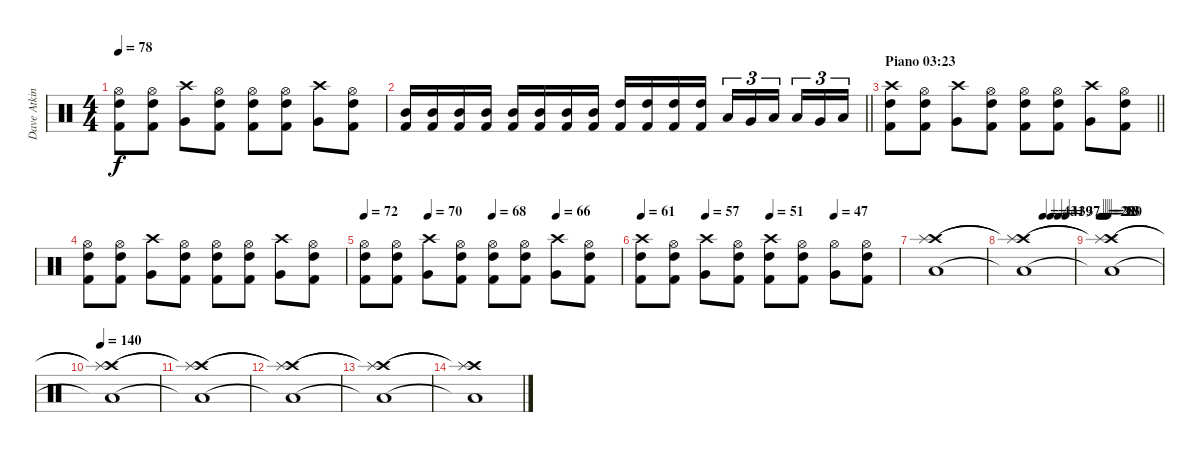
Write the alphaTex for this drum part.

\track ("Dave Atkins" "Dave Atkin") {instrument percussion}
\staff {score}
\articulation defaults
\ts (4 4)
\tempo 78
\clef neutral
\ks c
("Hi-Hat (open)" "High Tom (hit)" "Kick (hit) 2").8{dy f} ("Hi-Hat (open)" "High Tom (hit)" "Kick (hit) 2").8 ("Crash high (hit)" "Very Low Tom (hit)").8 ("Hi-Hat (open)" "High Tom (hit)" "Kick (hit) 2").8 ("Hi-Hat (open)" "High Tom (hit)" "Kick (hit) 2").8 ("Hi-Hat (open)" "High Tom (hit)" "Kick (hit) 2").8 ("Crash high (hit)" "Very Low Tom (hit)").8 ("Hi-Hat (open)" "High Tom (hit)" "Kick (hit) 2").8 |
\barLineRight lightlight
("Mid Tom (hit)" "Kick (hit) 2").16 ("Mid Tom (hit)" "Kick (hit) 2").16 ("Mid Tom (hit)" "Kick (hit) 2").16 ("Mid Tom (hit)" "Kick (hit) 2").16 ("Mid Tom (hit)" "Kick (hit) 2").16 ("Mid Tom (hit)" "Kick (hit) 2").16 ("Mid Tom (hit)" "Kick (hit) 2").16 ("Mid Tom (hit)" "Kick (hit) 2").16 ("High Tom (hit)" "Kick (hit) 2").16 ("High Tom (hit)" "Kick (hit) 2").16 ("High Tom (hit)" "Kick (hit) 2").16 ("High Tom (hit)" "Kick (hit) 2").16 "Low Floor Tom (hit)".16{tu (3 2)} "Very Low Tom (hit)".16{tu (3 2)} "Low Floor Tom (hit)".16{tu (3 2) beam splitsecondary} "Low Floor Tom (hit)".16{tu (3 2)} "Very Low Tom (hit)".16{tu (3 2)} "Low Floor Tom (hit)".16{tu (3 2)} |
\section ("" "Piano 03:23")
\barLineRight lightlight
("Crash high (hit)" "High Tom (hit)" "Kick (hit) 2").8 ("Hi-Hat (open)" "High Tom (hit)" "Kick (hit) 2").8 ("Crash high (hit)" "Very Low Tom (hit)").8 ("Hi-Hat (open)" "High Tom (hit)" "Kick (hit) 2").8 ("Hi-Hat (open)" "High Tom (hit)" "Kick (hit) 2").8 ("Hi-Hat (open)" "High Tom (hit)" "Kick (hit) 2").8 ("Crash high (hit)" "Very Low Tom (hit)").8 ("Hi-Hat (open)" "High Tom (hit)" "Kick (hit) 2").8 |
\section ("" "")
("Hi-Hat (open)" "High Tom (hit)" "Kick (hit) 2").8 ("Hi-Hat (open)" "High Tom (hit)" "Kick (hit) 2").8 ("Crash high (hit)" "Very Low Tom (hit)").8 ("Hi-Hat (open)" "High Tom (hit)" "Kick (hit) 2").8 ("Hi-Hat (open)" "High Tom (hit)" "Kick (hit) 2").8 ("Hi-Hat (open)" "High Tom (hit)" "Kick (hit) 2").8 ("Crash high (hit)" "Very Low Tom (hit)").8 ("Hi-Hat (open)" "High Tom (hit)" "Kick (hit) 2").8 |
\tempo 72
\tempo (70 0.25)
\tempo (68 0.5)
\tempo (66 0.75)
("Hi-Hat (open)" "High Tom (hit)" "Kick (hit) 2").8 ("Hi-Hat (open)" "High Tom (hit)" "Kick (hit) 2").8 ("Crash high (hit)" "Very Low Tom (hit)").8 ("Hi-Hat (open)" "High Tom (hit)" "Kick (hit) 2").8 ("Hi-Hat (open)" "High Tom (hit)" "Kick (hit) 2").8 ("Hi-Hat (open)" "High Tom (hit)" "Kick (hit) 2").8 ("Crash high (hit)" "Very Low Tom (hit)").8 ("Hi-Hat (open)" "High Tom (hit)" "Kick (hit) 2").8 |
\tempo 61
\tempo (57 0.25)
\tempo (51 0.5)
\tempo (47 0.75)
("Crash high (hit)" "High Tom (hit)" "Kick (hit) 2").8 ("Hi-Hat (open)" "High Tom (hit)" "Kick (hit) 2").8 ("Crash high (hit)" "Very Low Tom (hit)").8 ("Hi-Hat (open)" "High Tom (hit)" "Kick (hit) 2").8 ("Crash high (hit)" "High Tom (hit)" "Kick (hit) 2").8 ("Hi-Hat (open)" "High Tom (hit)" "Kick (hit) 2").8 ("Hi-Hat (open)" "Very Low Tom (hit)").8 ("Hi-Hat (open)" "High Tom (hit)" "Kick (hit) 2").8 |
("Crash high (hit)" "Splash (hit)" "Low Floor Tom (hit)").1 |
\tempo (43 0.5)
\tempo (41 0.625)
\tempo (39 0.75)
\tempo (37 0.875)
("Crash high (hit)"{t} "Splash (hit)"{t} "Low Floor Tom (hit)"{t}).1 |
\tempo 28
\tempo (22 0.03125)
\tempo (18 0.0625)
\tempo (13 0.09375)
\tempo (80 0.125)
("Crash high (hit)"{t} "Splash (hit)"{t} "Low Floor Tom (hit)"{t}).1 |
\tempo 140
("Crash high (hit)"{t} "Splash (hit)"{t} "Low Floor Tom (hit)"{t}).1 |
("Crash high (hit)"{t} "Splash (hit)"{t} "Low Floor Tom (hit)"{t}).1 |
("Crash high (hit)"{t} "Splash (hit)"{t} "Low Floor Tom (hit)"{t}).1 |
("Crash high (hit)"{t} "Splash (hit)"{t} "Low Floor Tom (hit)"{t}).1 |
("Crash high (hit)"{t} "Splash (hit)"{t} "Low Floor Tom (hit)"{t}).1
